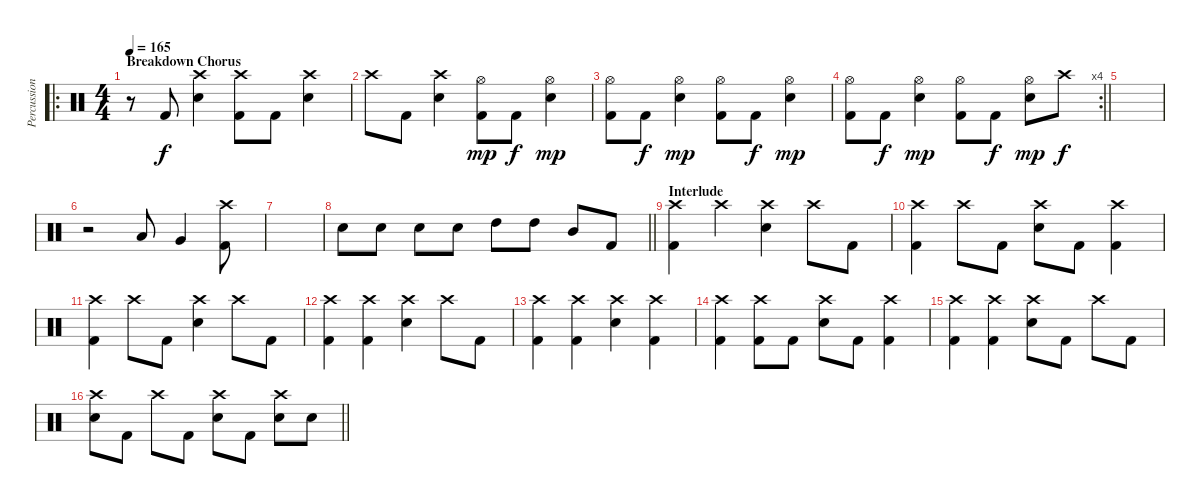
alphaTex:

\track ("Percussion" "Percussion") {instrument percussion}
\staff {score}
\articulation defaults
\ro
\ts (4 4)
\section ("" "Breakdown Chorus")
\tempo 165
\clef neutral
\ks c
r.8{dy f} "Kick (hit) 2".8 ("Crash high (hit)" "Electric Snare (hit)").4 ("Crash high (hit)" "Kick (hit) 2").8 "Kick (hit) 2".8 ("Crash high (hit)" "Electric Snare (hit)").4 |
"Crash high (hit)".8 "Kick (hit) 2".8 ("Crash high (hit)" "Electric Snare (hit)").4 ("Hi-Hat (open)" "Kick (hit) 2").8{dy mp} "Kick (hit) 2".8{dy f} ("Hi-Hat (open)" "Electric Snare (hit)").4{dy mp} |
("Hi-Hat (open)" "Kick (hit) 2").8 "Kick (hit) 2".8{dy f} ("Hi-Hat (open)" "Electric Snare (hit)").4{dy mp} ("Hi-Hat (open)" "Kick (hit) 2").8 "Kick (hit) 2".8{dy f} ("Hi-Hat (open)" "Electric Snare (hit)").4{dy mp} |
\rc 4
\barLineRight lightlight
("Hi-Hat (open)" "Kick (hit) 2").8 "Kick (hit) 2".8{dy f} ("Hi-Hat (open)" "Electric Snare (hit)").4{dy mp} ("Hi-Hat (open)" "Kick (hit) 2").8 "Kick (hit) 2".8{dy f} ("Hi-Hat (open)" "Electric Snare (hit)").8{dy mp} "Crash high (hit)".8{dy f} |
|
r.2 "Low Tom (hit)".8 "Very Low Tom (hit)".4 ("Crash high (hit)" "Kick (hit) 2").8 |
|
\barLineRight lightlight "Electric Snare (hit)".8 "Electric Snare (hit)".8 "Electric Snare (hit)".8 "Electric Snare (hit)".8 "High Tom (hit)".8 "High Tom (hit)".8 "Mid Tom (hit)".8 "Kick (hit) 2".8
|
\section ("" "Interlude")
("Crash high (hit)" "Kick (hit) 2").4 "Crash high (hit)".4 ("Crash high (hit)" "Electric Snare (hit)").4 "Crash high (hit)".8 "Kick (hit) 2".8 |
("Crash high (hit)" "Kick (hit) 2").4 "Crash high (hit)".8 "Kick (hit) 2".8 ("Crash high (hit)" "Electric Snare (hit)").8 "Kick (hit) 2".8 ("Crash high (hit)" "Kick (hit) 2").4 |
("Crash high (hit)" "Kick (hit) 2").4 "Crash high (hit)".8 "Kick (hit) 2".8 ("Crash high (hit)" "Electric Snare (hit)").4 "Crash high (hit)".8 "Kick (hit) 2".8 |
("Crash high (hit)" "Kick (hit) 2").4 ("Crash high (hit)" "Kick (hit) 2").4 ("Crash high (hit)" "Electric Snare (hit)").4 "Crash high (hit)".8 "Kick (hit) 2".8 |
("Crash high (hit)" "Kick (hit) 2").4 ("Crash high (hit)" "Kick (hit) 2").4 ("Crash high (hit)" "Electric Snare (hit)").4 ("Crash high (hit)" "Kick (hit) 2").4 |
("Crash high (hit)" "Kick (hit) 2").4 ("Crash high (hit)" "Kick (hit) 2").8 "Kick (hit) 2".8 ("Crash high (hit)" "Electric Snare (hit)").8 "Kick (hit) 2".8 ("Crash high (hit)" "Kick (hit) 2").4 |
("Crash high (hit)" "Kick (hit) 2").4 ("Crash high (hit)" "Kick (hit) 2").4 ("Crash high (hit)" "Electric Snare (hit)").8 "Kick (hit) 2".8 "Crash high (hit)".8 "Kick (hit) 2".8 |
\barLineRight lightlight
("Crash high (hit)" "Electric Snare (hit)").8 "Kick (hit) 2".8 "Crash high (hit)".8 "Kick (hit) 2".8 ("Crash high (hit)" "Electric Snare (hit)").8 "Kick (hit) 2".8 ("Crash high (hit)" "Electric Snare (hit)").8 "Electric Snare (hit)".8
